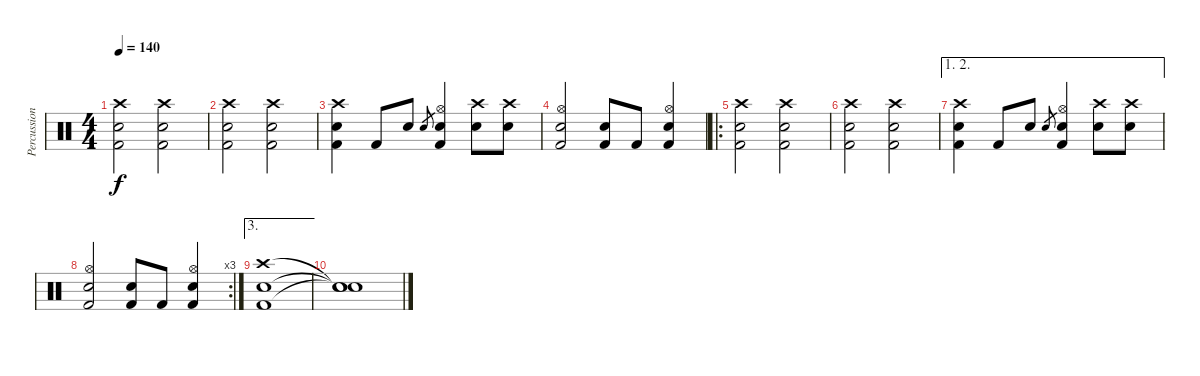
\track ("Percussions" "Percussion") {instrument percussion}
\staff {score}
\articulation defaults
\ts (4 4)
\tempo 140
\clef neutral
\ks c
("Crash high (hit)" "Snare (hit) 2" "Kick (hit) 2").2{dy f} ("Crash high (hit)" "Snare (hit) 2" "Kick (hit) 2").2 |
("Crash high (hit)" "Snare (hit) 2" "Kick (hit) 2").2 ("Crash high (hit)" "Snare (hit) 2" "Kick (hit) 2").2 |
("Crash high (hit)" "Snare (hit) 2" "Kick (hit) 2").4 "Kick (hit) 2".8 "Snare (hit) 2".8 "Snare (hit) 2".8{gr} ("Hi-Hat (open)" "Electric Snare (hit)" "Kick (hit) 2").4 ("Crash high (hit)" "Snare (hit) 2").8 ("Crash high (hit)" "Electric Snare (hit)").8 |
("Hi-Hat (open)" "Electric Snare (hit)" "Kick (hit) 2").2 ("Snare (hit) 2" "Kick (hit) 2").8 "Kick (hit) 2".8 ("Hi-Hat (open)" "Electric Snare (hit)" "Kick (hit) 2").4 |
\ro
("Crash high (hit)" "Snare (hit) 2" "Kick (hit) 2").2 ("Crash high (hit)" "Snare (hit) 2" "Kick (hit) 2").2 |
("Crash high (hit)" "Snare (hit) 2" "Kick (hit) 2").2 ("Crash high (hit)" "Snare (hit) 2" "Kick (hit) 2").2 |
\ae (1 2)
("Crash high (hit)" "Snare (hit) 2" "Kick (hit) 2").4 "Kick (hit) 2".8 "Snare (hit) 2".8 "Snare (hit) 2".8{gr} ("Hi-Hat (open)" "Electric Snare (hit)" "Kick (hit) 2").4 ("Crash high (hit)" "Snare (hit) 2").8 ("Crash high (hit)" "Electric Snare (hit)").8 |
\rc 3
("Hi-Hat (open)" "Electric Snare (hit)" "Kick (hit) 2").2 ("Snare (hit) 2" "Kick (hit) 2").8 "Kick (hit) 2".8 ("Hi-Hat (open)" "Electric Snare (hit)" "Kick (hit) 2").4 |
\ae 3
("Crash high (hit)" "Snare (hit) 2" "Kick (hit) 2").1 |
("Snare (hit)"{t} "Snare (hit)"{t} "Snare (hit)"{t}).1
